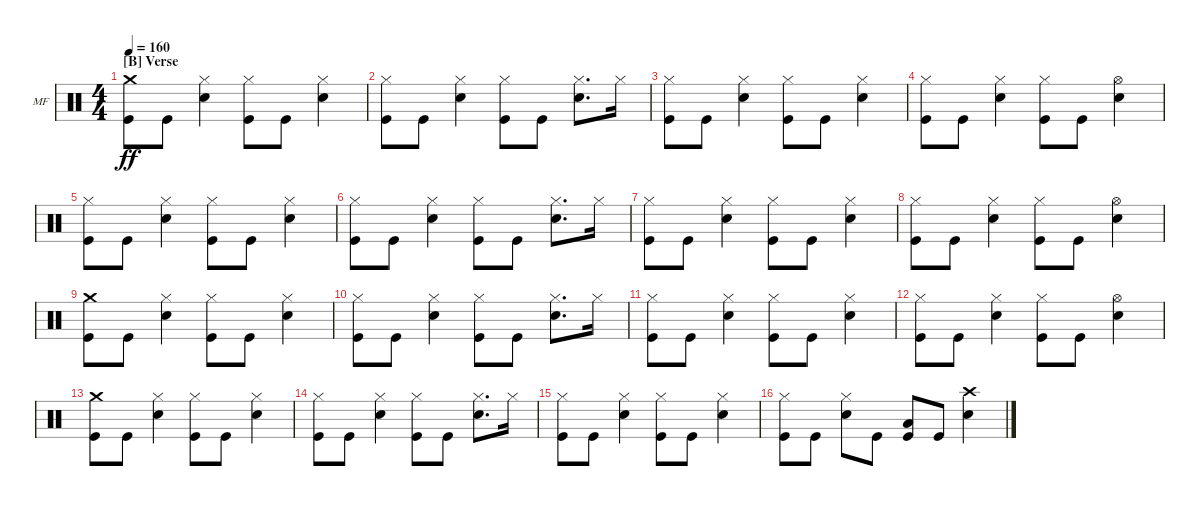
\defaultSystemsLayout 4
\bracketExtendMode groupsimilarinstruments
\firstSystemTrackNameOrientation horizontal
\otherSystemsTrackNameOrientation horizontal
\track ("Mike Felumlee - Drums" "MF") {instrument percussion}
\staff {score}
\articulation defaults
\ts (4 4)
\section ("B" "Verse")
\tempo 160
\clef neutral
\ks c
("Crash medium (hit)" "Kick (hit)").8{dy ff} "Kick (hit)".8 ("Snare (hit) 2" "Hi-Hat (closed)").4 ("Kick (hit)" "Hi-Hat (closed)").8 "Kick (hit)".8 ("Snare (hit) 2" "Hi-Hat (closed)").4 |
("Kick (hit)" "Hi-Hat (closed)").8 "Kick (hit)".8 ("Snare (hit) 2" "Hi-Hat (closed)").4 ("Kick (hit)" "Hi-Hat (closed)").8 "Kick (hit)".8 ("Snare (hit) 2" "Hi-Hat (closed)").8{d} "Hi-Hat (closed)".16 |
("Kick (hit)" "Hi-Hat (closed)").8 "Kick (hit)".8 ("Snare (hit) 2" "Hi-Hat (closed)").4 ("Kick (hit)" "Hi-Hat (closed)").8 "Kick (hit)".8 ("Snare (hit) 2" "Hi-Hat (closed)").4 |
("Kick (hit)" "Hi-Hat (closed)").8 "Kick (hit)".8 ("Snare (hit) 2" "Hi-Hat (closed)").4 ("Kick (hit)" "Hi-Hat (closed)").8 "Kick (hit)".8 ("Snare (hit) 2" "Hi-Hat (open)").4 |
("Kick (hit)" "Hi-Hat (closed)").8 "Kick (hit)".8 ("Snare (hit) 2" "Hi-Hat (closed)").4 ("Kick (hit)" "Hi-Hat (closed)").8 "Kick (hit)".8 ("Snare (hit) 2" "Hi-Hat (closed)").4 |
("Kick (hit)" "Hi-Hat (closed)").8 "Kick (hit)".8 ("Snare (hit) 2" "Hi-Hat (closed)").4 ("Kick (hit)" "Hi-Hat (closed)").8 "Kick (hit)".8 ("Snare (hit) 2" "Hi-Hat (closed)").8{d} "Hi-Hat (closed)".16 |
("Kick (hit)" "Hi-Hat (closed)").8 "Kick (hit)".8 ("Snare (hit) 2" "Hi-Hat (closed)").4 ("Kick (hit)" "Hi-Hat (closed)").8 "Kick (hit)".8 ("Snare (hit) 2" "Hi-Hat (closed)").4 |
("Kick (hit)" "Hi-Hat (closed)").8 "Kick (hit)".8 ("Snare (hit) 2" "Hi-Hat (closed)").4 ("Kick (hit)" "Hi-Hat (closed)").8 "Kick (hit)".8 ("Snare (hit) 2" "Hi-Hat (open)").4 |
("Crash medium (hit)" "Kick (hit)").8 "Kick (hit)".8 ("Snare (hit) 2" "Hi-Hat (closed)").4 ("Kick (hit)" "Hi-Hat (closed)").8 "Kick (hit)".8 ("Snare (hit) 2" "Hi-Hat (closed)").4 |
("Kick (hit)" "Hi-Hat (closed)").8 "Kick (hit)".8 ("Snare (hit) 2" "Hi-Hat (closed)").4 ("Kick (hit)" "Hi-Hat (closed)").8 "Kick (hit)".8 ("Snare (hit) 2" "Hi-Hat (closed)").8{d} "Hi-Hat (closed)".16 |
("Kick (hit)" "Hi-Hat (closed)").8 "Kick (hit)".8 ("Snare (hit) 2" "Hi-Hat (closed)").4 ("Kick (hit)" "Hi-Hat (closed)").8 "Kick (hit)".8 ("Snare (hit) 2" "Hi-Hat (closed)").4 |
("Kick (hit)" "Hi-Hat (closed)").8 "Kick (hit)".8 ("Snare (hit) 2" "Hi-Hat (closed)").4 ("Kick (hit)" "Hi-Hat (closed)").8 "Kick (hit)".8 ("Snare (hit) 2" "Hi-Hat (open)").4 |
("Crash medium (hit)" "Kick (hit)").8 "Kick (hit)".8 ("Snare (hit) 2" "Hi-Hat (closed)").4 ("Kick (hit)" "Hi-Hat (closed)").8 "Kick (hit)".8 ("Snare (hit) 2" "Hi-Hat (closed)").4 |
("Kick (hit)" "Hi-Hat (closed)").8 "Kick (hit)".8 ("Snare (hit) 2" "Hi-Hat (closed)").4 ("Kick (hit)" "Hi-Hat (closed)").8 "Kick (hit)".8 ("Snare (hit) 2" "Hi-Hat (closed)").8{d} "Hi-Hat (closed)".16 |
("Kick (hit)" "Hi-Hat (closed)").8 "Kick (hit)".8 ("Snare (hit) 2" "Hi-Hat (closed)").4 ("Kick (hit)" "Hi-Hat (closed)").8 "Kick (hit)".8 ("Snare (hit) 2" "Hi-Hat (closed)").4 |
("Kick (hit)" "Hi-Hat (closed)").8 "Kick (hit)".8 ("Snare (hit) 2" "Hi-Hat (closed)").8 "Kick (hit)".8 ("Kick (hit)" "Low Tom (hit)").8 "Kick (hit)".8 ("Snare (hit) 2" "Crash high (hit)").4
